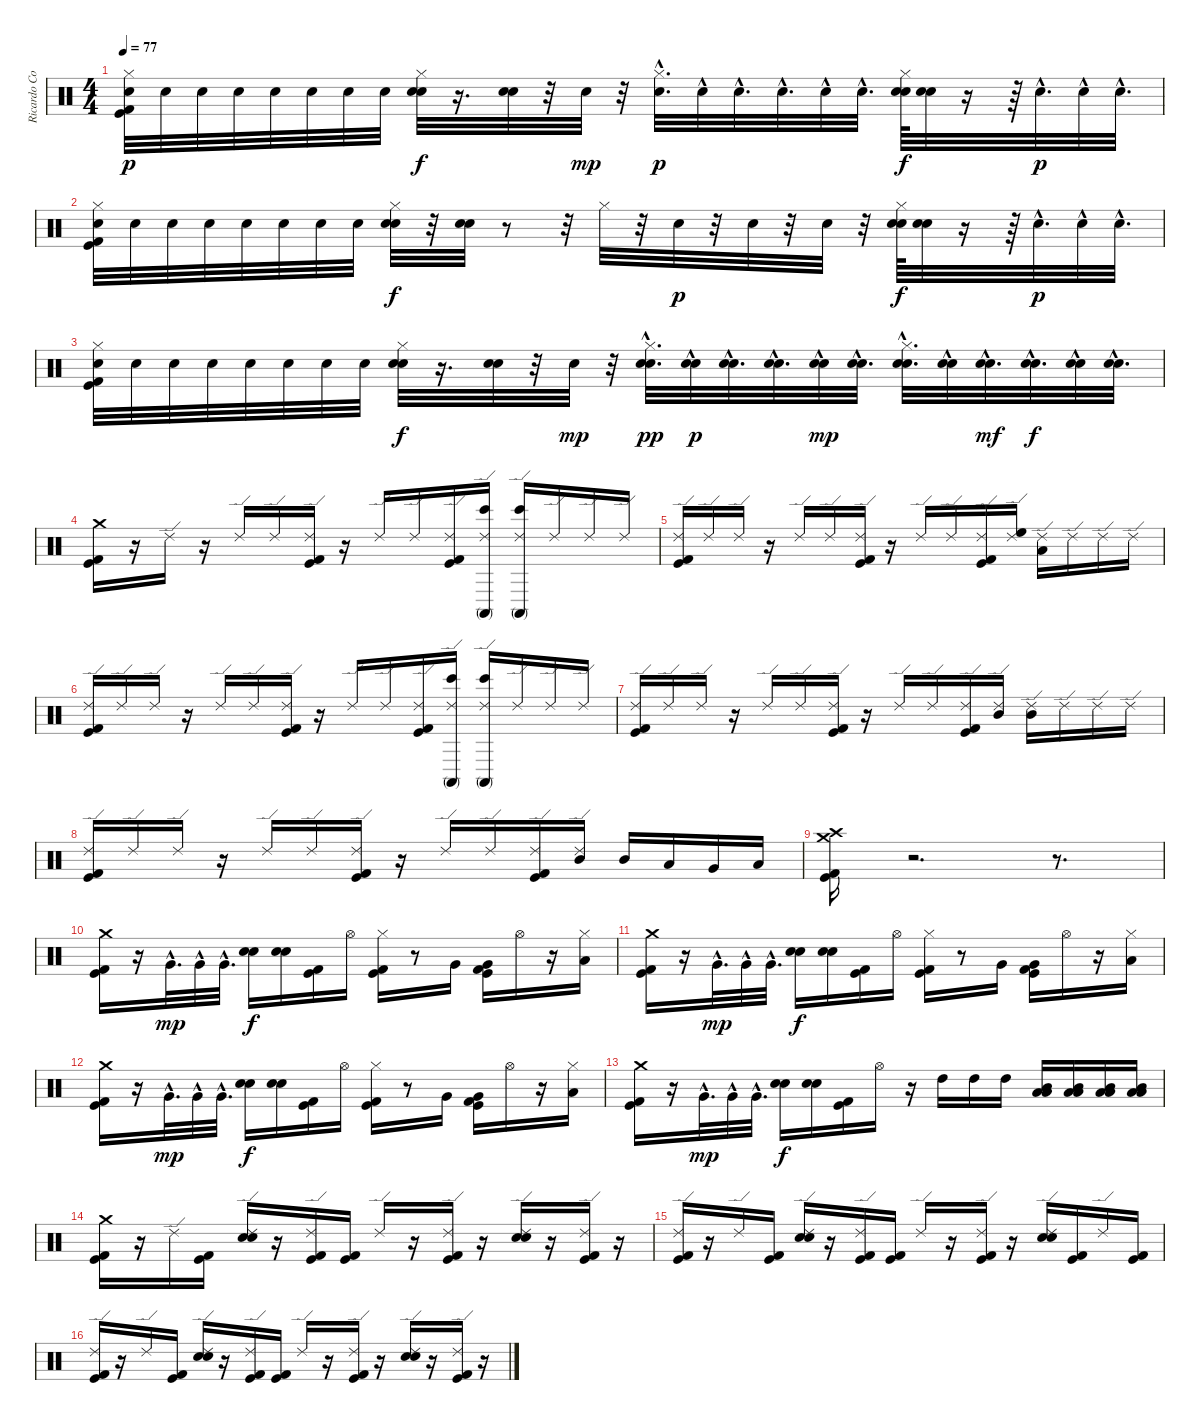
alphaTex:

\track ("Ricardo Confessori" "Ricardo Co") {instrument percussion}
\staff {score}
\articulation defaults
\ts (4 4)
\tempo 77
\clef neutral
\ks c
("Kick (hit)" "Kick (hit) 2" "Electric Snare (hit)" "Hi-Hat (closed)").32{dy p} "Electric Snare (hit)".32 "Electric Snare (hit)".32 "Electric Snare (hit)".32 "Electric Snare (hit)".32 "Electric Snare (hit)".32 "Electric Snare (hit)".32 "Electric Snare (hit)".32 ("Snare (hit) 2" "Electric Snare (hit)" "Hi-Hat (closed)").32{dy f} r.16{d} ("Snare (hit) 2" "Electric Snare (hit)").32 r.32 "Electric Snare (hit)".32{dy mp} r.32 ("Electric Snare (hit)"{hac} "Hi-Hat (closed)").32{d dy p} "Electric Snare (hit)"{hac}.32 "Electric Snare (hit)"{hac}.32{d} "Electric Snare (hit)"{hac}.32{d} "Electric Snare (hit)"{hac}.32 "Electric Snare (hit)"{hac}.32{d} ("Snare (hit) 2" "Electric Snare (hit)" "Hi-Hat (closed)").64{dy f} ("Snare (hit) 2" "Electric Snare (hit)").32 r.16 r.64 "Electric Snare (hit)"{hac}.32{d dy p} "Electric Snare (hit)"{hac}.32 "Electric Snare (hit)"{hac}.32{d} |
("Kick (hit) 2" "Kick (hit)" "Electric Snare (hit)" "Hi-Hat (closed)").32 "Electric Snare (hit)".32 "Electric Snare (hit)".32 "Electric Snare (hit)".32 "Electric Snare (hit)".32 "Electric Snare (hit)".32 "Electric Snare (hit)".32 "Electric Snare (hit)".32 ("Snare (hit) 2" "Electric Snare (hit)" "Hi-Hat (closed)").32{dy f} r.32 ("Snare (hit) 2" "Electric Snare (hit)").32 r.8 r.32 "Hi-Hat (closed)".32 r.32 "Electric Snare (hit)".32{dy p} r.32 "Electric Snare (hit)".32 r.32 "Electric Snare (hit)".32 r.32 ("Snare (hit) 2" "Electric Snare (hit)" "Hi-Hat (closed)").64{dy f} ("Snare (hit) 2" "Electric Snare (hit)").32 r.16 r.64 "Electric Snare (hit)"{hac}.32{d dy p} "Electric Snare (hit)"{hac}.32 "Electric Snare (hit)"{hac}.32{d} |
("Kick (hit) 2" "Kick (hit)" "Electric Snare (hit)" "Hi-Hat (closed)").32 "Electric Snare (hit)".32 "Electric Snare (hit)".32 "Electric Snare (hit)".32 "Electric Snare (hit)".32 "Electric Snare (hit)".32 "Electric Snare (hit)".32 "Electric Snare (hit)".32 ("Snare (hit) 2" "Electric Snare (hit)" "Hi-Hat (closed)").32{dy f} r.16{d} ("Snare (hit) 2" "Electric Snare (hit)").32 r.32 "Electric Snare (hit)".32{dy mp} r.32 ("Hi-Hat (closed)" "Snare (hit) 2"{hac} "Electric Snare (hit)"{hac}).32{d dy pp} ("Snare (hit) 2"{hac} "Electric Snare (hit)"{hac}).32{dy p} ("Snare (hit) 2"{hac} "Electric Snare (hit)"{hac}).32{d} ("Snare (hit) 2"{hac} "Electric Snare (hit)"{hac}).32{d} ("Snare (hit) 2"{hac} "Electric Snare (hit)"{hac}).32{dy mp} ("Snare (hit) 2"{hac} "Electric Snare (hit)"{hac}).32{d} ("Hi-Hat (closed)" "Snare (hit) 2"{hac} "Electric Snare (hit)"{hac}).32{d} ("Snare (hit) 2"{hac} "Electric Snare (hit)"{hac}).32 ("Snare (hit) 2"{hac} "Electric Snare (hit)"{hac}).32{d dy mf} ("Electric Snare (hit)"{hac} "Snare (hit) 2"{hac}).32{d dy f} ("Electric Snare (hit)"{hac} "Snare (hit) 2"{hac}).32 ("Electric Snare (hit)"{hac} "Snare (hit) 2"{hac}).32{d} |
("Crash medium (hit)" "Kick (hit) 2" "Kick (hit)").16 r.16 "Ride (edge) 2".16 r.16 "Ride (edge) 2".16 "Ride (edge) 2".16 ("Kick (hit) 2" "Kick (hit)" "Ride (edge) 2").16 r.16 "Ride (edge) 2".16 "Ride (edge) 2".16 ("Kick (hit) 2" "Kick (hit)" "Ride (edge) 2").16 ("Bongo High (hit)" "Conga high (mute)" "Ride (edge) 2").16 ("Bongo High (hit)" "Conga high (mute)" "Ride (edge) 2").16 "Ride (edge) 2".16 "Ride (edge) 2".16 "Ride (edge) 2".16 |
("Kick (hit) 2" "Kick (hit)" "Ride (edge) 2").16 "Ride (edge) 2".16 "Ride (edge) 2".16 r.16 "Ride (edge) 2".16 "Ride (edge) 2".16 ("Kick (hit) 2" "Kick (hit)" "Ride (edge) 2").16 r.16 "Ride (edge) 2".16 "Ride (edge) 2".16 ("Kick (hit)" "Kick (hit) 2" "Ride (edge) 2").16 ("High Floor Tom (hit)" "Ride (edge) 2").16 ("Low Tom (hit)" "Ride (edge) 2").16 "Ride (edge) 2".16 "Ride (edge) 2".16 "Ride (edge) 2".16 |
("Kick (hit) 2" "Kick (hit)" "Ride (edge) 2").16 "Ride (edge) 2".16 "Ride (edge) 2".16 r.16 "Ride (edge) 2".16 "Ride (edge) 2".16 ("Kick (hit) 2" "Kick (hit)" "Ride (edge) 2").16 r.16 "Ride (edge) 2".16 "Ride (edge) 2".16 ("Kick (hit) 2" "Kick (hit)" "Ride (edge) 2").16 ("Conga high (mute)" "Bongo High (hit)" "Ride (edge) 2").16 ("Conga high (mute)" "Bongo High (hit)" "Ride (edge) 2").16 "Ride (edge) 2".16 "Ride (edge) 2".16 "Ride (edge) 2".16 |
("Kick (hit) 2" "Kick (hit)" "Ride (edge) 2").16 "Ride (edge) 2".16 "Ride (edge) 2".16 r.16 "Ride (edge) 2".16 "Ride (edge) 2".16 ("Kick (hit) 2" "Kick (hit)" "Ride (edge) 2").16 r.16 "Ride (edge) 2".16 "Ride (edge) 2".16 ("Kick (hit) 2" "Kick (hit)" "Ride (edge) 2").16 ("Mid Tom (hit)" "Ride (edge) 2").16 ("Ride (edge) 2" "Mid Tom (hit)").16 "Ride (edge) 2".16 "Ride (edge) 2".16 "Ride (edge) 2".16 |
("Kick (hit) 2" "Kick (hit)" "Ride (edge) 2").16 "Ride (edge) 2".16 "Ride (edge) 2".16 r.16 "Ride (edge) 2".16 "Ride (edge) 2".16 ("Kick (hit) 2" "Kick (hit)" "Ride (edge) 2").16 r.16 "Ride (edge) 2".16 "Ride (edge) 2".16 ("Kick (hit)" "Kick (hit) 2" "Ride (edge) 2").16 ("Mid Tom (hit)" "Ride (edge) 2").16 "Mid Tom (hit)".16 "Low Tom (hit)".16 "Very Low Tom (hit)".16 "Low Floor Tom (hit)".16 |
("Crash high (hit)" "Crash medium (hit)" "Kick (hit) 2" "Kick (hit)").16 r.2{d} r.8{d} |
("Crash medium (hit)" "Kick (hit) 2" "Kick (hit)").16 r.16 "Very Low Tom (hit)"{hac}.32{d dy mp} "Very Low Tom (hit)"{hac}.32 "Very Low Tom (hit)"{hac}.32{d} ("Electric Snare (hit)" "Snare (hit) 2").16{dy f} ("Electric Snare (hit)" "Snare (hit) 2").16 ("Kick (hit) 2" "Kick (hit)").16 "Hi-Hat (open)".16 ("Kick (hit) 2" "Kick (hit)" "Hi-Hat (closed)").16 r.8 "Very Low Tom (hit)".16 ("Very Low Tom (hit)" "Kick (hit) 2" "Kick (hit)").16 "Hi-Hat (open)".16 r.16 ("Low Tom (hit)" "Hi-Hat (closed)").16 |
("Crash medium (hit)" "Kick (hit) 2" "Kick (hit)").16 r.16 "Very Low Tom (hit)"{hac}.32{d dy mp} "Very Low Tom (hit)"{hac}.32 "Very Low Tom (hit)"{hac}.32{d} ("Electric Snare (hit)" "Snare (hit) 2").16{dy f} ("Electric Snare (hit)" "Snare (hit) 2").16 ("Kick (hit) 2" "Kick (hit)").16 "Hi-Hat (open)".16 ("Kick (hit) 2" "Kick (hit)" "Hi-Hat (closed)").16 r.8 "Very Low Tom (hit)".16 ("Very Low Tom (hit)" "Kick (hit) 2" "Kick (hit)").16 "Hi-Hat (open)".16 r.16 ("Low Tom (hit)" "Hi-Hat (closed)").16 |
("Crash medium (hit)" "Kick (hit) 2" "Kick (hit)").16 r.16 "Very Low Tom (hit)"{hac}.32{d dy mp} "Very Low Tom (hit)"{hac}.32 "Very Low Tom (hit)"{hac}.32{d} ("Electric Snare (hit)" "Snare (hit) 2").16{dy f} ("Electric Snare (hit)" "Snare (hit) 2").16 ("Kick (hit) 2" "Kick (hit)").16 "Hi-Hat (open)".16 ("Kick (hit) 2" "Kick (hit)" "Hi-Hat (closed)").16 r.8 "Very Low Tom (hit)".16 ("Very Low Tom (hit)" "Kick (hit) 2" "Kick (hit)").16 "Hi-Hat (open)".16 r.16 ("Low Tom (hit)" "Hi-Hat (closed)").16 |
("Crash medium (hit)" "Kick (hit) 2" "Kick (hit)").16 r.16 "Very Low Tom (hit)"{hac}.32{d dy mp} "Very Low Tom (hit)"{hac}.32 "Very Low Tom (hit)"{hac}.32{d} ("Electric Snare (hit)" "Snare (hit) 2").16{dy f} ("Electric Snare (hit)" "Snare (hit) 2").16 ("Kick (hit) 2" "Kick (hit)").16 "Hi-Hat (open)".16 r.16 "High Tom (hit)".16 "High Tom (hit)".16 "High Tom (hit)".16 ("Low Tom (hit)" "Mid Tom (hit)" "Low Floor Tom (hit)").16 ("Low Tom (hit)" "Mid Tom (hit)" "Low Floor Tom (hit)").16 ("Low Tom (hit)" "Mid Tom (hit)" "Low Floor Tom (hit)").16 ("Low Tom (hit)" "Mid Tom (hit)" "Low Floor Tom (hit)").16 |
("Kick (hit) 2" "Crash medium (hit)" "Kick (hit)").16 r.16 "Ride (edge) 2".16 ("Kick (hit) 2" "Kick (hit)").16 ("Electric Snare (hit)" "Snare (hit) 2" "Ride (edge) 2").16 r.16 ("Kick (hit) 2" "Kick (hit)" "Ride (edge) 2").16 ("Kick (hit) 2" "Kick (hit)").16 "Ride (edge) 2".16 r.16 ("Kick (hit) 2" "Kick (hit)" "Ride (edge) 2").16 r.16 ("Electric Snare (hit)" "Snare (hit) 2" "Ride (edge) 2").16 r.16 ("Kick (hit) 2" "Kick (hit)" "Ride (edge) 2").16 r.16 |
("Ride (edge) 2" "Kick (hit) 2" "Kick (hit)").16 r.16 "Ride (edge) 2".16 ("Kick (hit) 2" "Kick (hit)").16 ("Electric Snare (hit)" "Snare (hit) 2" "Ride (edge) 2").16 r.16 ("Ride (edge) 2" "Kick (hit) 2" "Kick (hit)").16 ("Kick (hit) 2" "Kick (hit)").16 "Ride (edge) 2".16 r.16 ("Ride (edge) 2" "Kick (hit) 2" "Kick (hit)").16 r.16 ("Electric Snare (hit)" "Snare (hit) 2" "Ride (edge) 2").16 ("Kick (hit)" "Kick (hit) 2").16 "Ride (edge) 2".16 ("Kick (hit) 2" "Kick (hit)").16 |
("Ride (edge) 2" "Kick (hit) 2" "Kick (hit)").16 r.16 "Ride (edge) 2".16 ("Kick (hit) 2" "Kick (hit)").16 ("Electric Snare (hit)" "Snare (hit) 2" "Ride (edge) 2").16 r.16 ("Ride (edge) 2" "Kick (hit) 2" "Kick (hit)").16 ("Kick (hit) 2" "Kick (hit)").16 "Ride (edge) 2".16 r.16 ("Ride (edge) 2" "Kick (hit) 2" "Kick (hit)").16 r.16 ("Electric Snare (hit)" "Snare (hit) 2" "Ride (edge) 2").16 r.16 ("Ride (edge) 2" "Kick (hit) 2" "Kick (hit)").16 r.16
